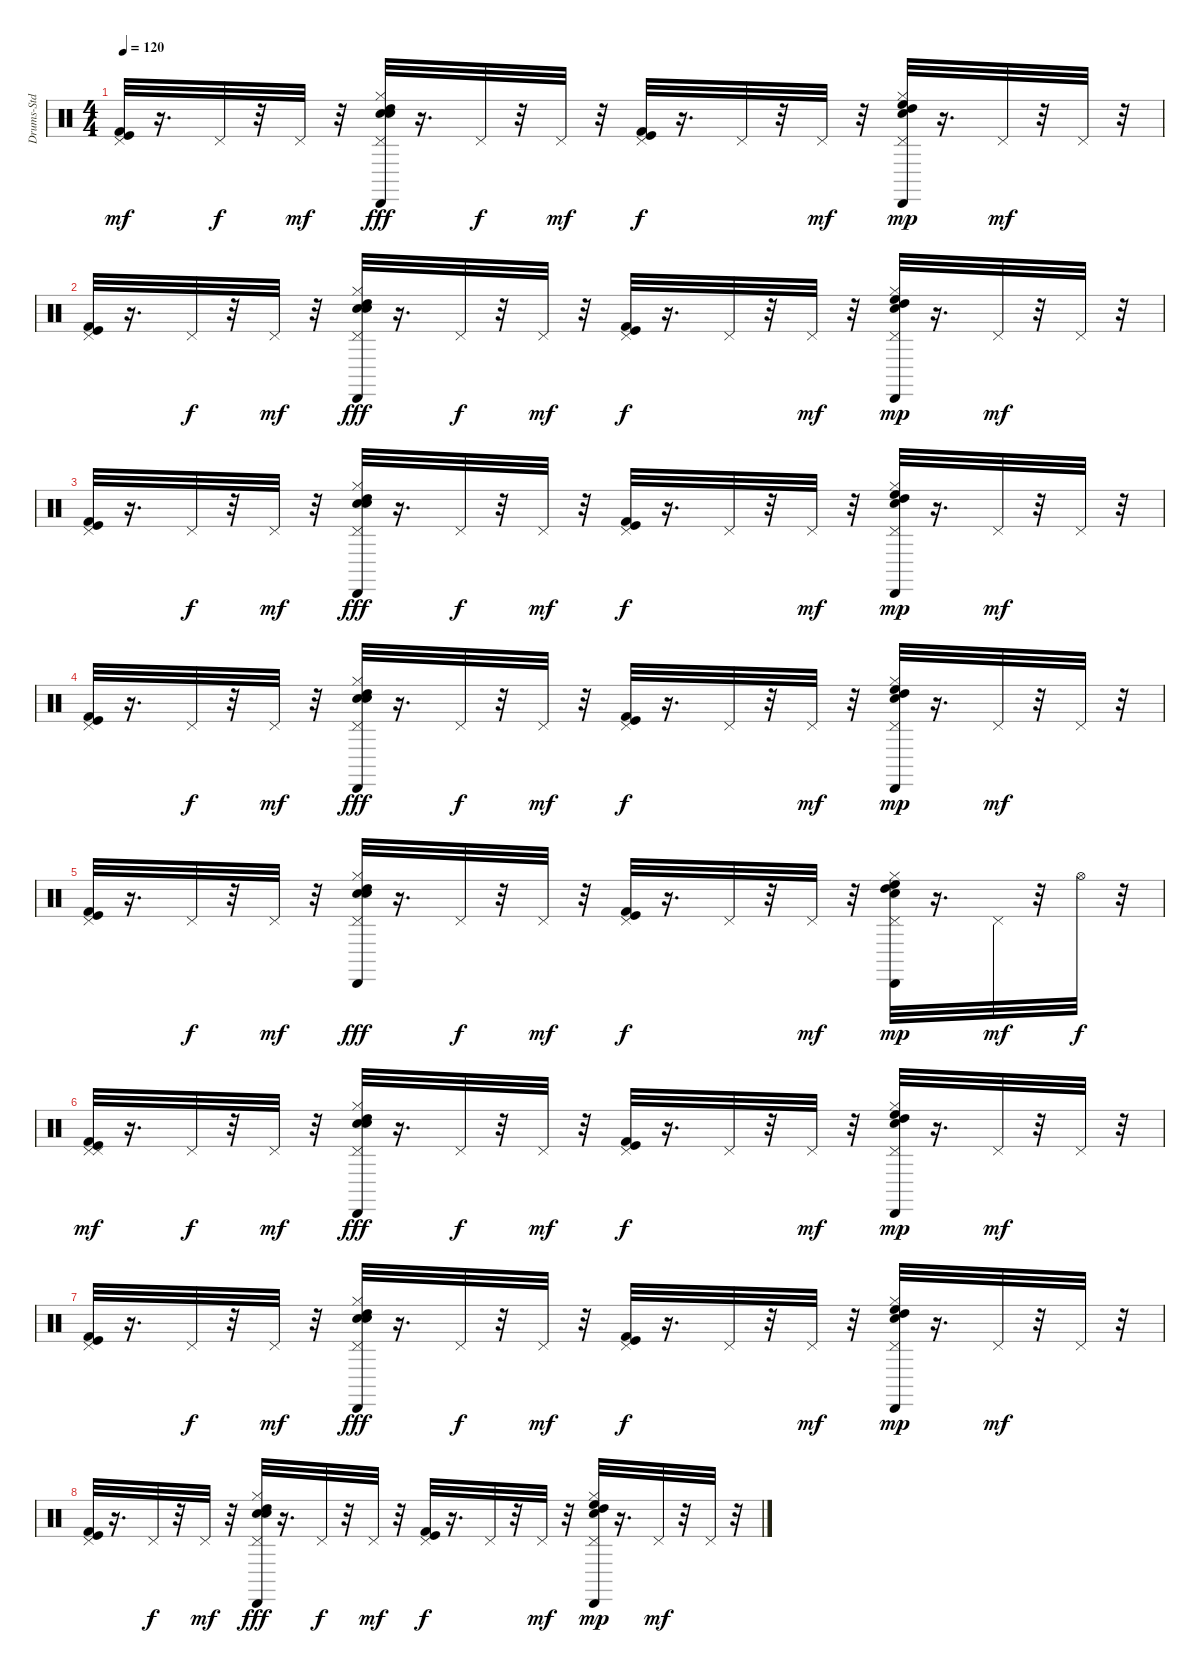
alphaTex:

\track ("Drums-Std" "Drums-Std") {instrument percussion}
\staff {score}
\articulation defaults
\ts (4 4)
\tempo 120
\clef neutral
\ks c
("Pedal Hi-Hat (hit)" "Kick (hit) 2" "Kick (hit)").32{dy mf} r.16{d} "Pedal Hi-Hat (hit)".32{dy f} r.32 "Pedal Hi-Hat (hit)".32{dy mf} r.32 ("Snare (hit) 2" "High Tom (hit)" "Cabasa (hit)" "Hi-Hat (closed)" "Pedal Hi-Hat (hit)" "Electric Snare (hit)").32{dy fff} r.16{d} "Pedal Hi-Hat (hit)".32{dy f} r.32 "Pedal Hi-Hat (hit)".32{dy mf} r.32 ("Pedal Hi-Hat (hit)" "Kick (hit) 2" "Kick (hit)").32{dy f} r.16{d} "Pedal Hi-Hat (hit)".32 r.32 "Pedal Hi-Hat (hit)".32{dy mf} r.32 ("Snare (hit) 2" "High Floor Tom (hit)" "High Tom (hit)" "Cabasa (hit)" "Hi-Hat (closed)" "Pedal Hi-Hat (hit)").32{dy mp} r.16{d} "Pedal Hi-Hat (hit)".32{dy mf} r.32 "Pedal Hi-Hat (hit)".32 r.32 |
("Pedal Hi-Hat (hit)" "Kick (hit) 2" "Kick (hit)").32 r.16{d} "Pedal Hi-Hat (hit)".32{dy f} r.32 "Pedal Hi-Hat (hit)".32{dy mf} r.32 ("Snare (hit) 2" "High Tom (hit)" "Cabasa (hit)" "Hi-Hat (closed)" "Pedal Hi-Hat (hit)" "Electric Snare (hit)").32{dy fff} r.16{d} "Pedal Hi-Hat (hit)".32{dy f} r.32 "Pedal Hi-Hat (hit)".32{dy mf} r.32 ("Pedal Hi-Hat (hit)" "Kick (hit) 2" "Kick (hit)").32{dy f} r.16{d} "Pedal Hi-Hat (hit)".32 r.32 "Pedal Hi-Hat (hit)".32{dy mf} r.32 ("Snare (hit) 2" "High Floor Tom (hit)" "High Tom (hit)" "Cabasa (hit)" "Hi-Hat (closed)" "Pedal Hi-Hat (hit)").32{dy mp} r.16{d} "Pedal Hi-Hat (hit)".32{dy mf} r.32 "Pedal Hi-Hat (hit)".32 r.32 |
("Pedal Hi-Hat (hit)" "Kick (hit) 2" "Kick (hit)").32 r.16{d} "Pedal Hi-Hat (hit)".32{dy f} r.32 "Pedal Hi-Hat (hit)".32{dy mf} r.32 ("Snare (hit) 2" "High Tom (hit)" "Cabasa (hit)" "Hi-Hat (closed)" "Pedal Hi-Hat (hit)" "Electric Snare (hit)").32{dy fff} r.16{d} "Pedal Hi-Hat (hit)".32{dy f} r.32 "Pedal Hi-Hat (hit)".32{dy mf} r.32 ("Pedal Hi-Hat (hit)" "Kick (hit) 2" "Kick (hit)").32{dy f} r.16{d} "Pedal Hi-Hat (hit)".32 r.32 "Pedal Hi-Hat (hit)".32{dy mf} r.32 ("Snare (hit) 2" "High Floor Tom (hit)" "High Tom (hit)" "Cabasa (hit)" "Hi-Hat (closed)" "Pedal Hi-Hat (hit)").32{dy mp} r.16{d} "Pedal Hi-Hat (hit)".32{dy mf} r.32 "Pedal Hi-Hat (hit)".32 r.32 |
("Pedal Hi-Hat (hit)" "Kick (hit) 2" "Kick (hit)").32 r.16{d} "Pedal Hi-Hat (hit)".32{dy f} r.32 "Pedal Hi-Hat (hit)".32{dy mf} r.32 ("Snare (hit) 2" "High Tom (hit)" "Cabasa (hit)" "Hi-Hat (closed)" "Pedal Hi-Hat (hit)" "Electric Snare (hit)").32{dy fff} r.16{d} "Pedal Hi-Hat (hit)".32{dy f} r.32 "Pedal Hi-Hat (hit)".32{dy mf} r.32 ("Pedal Hi-Hat (hit)" "Kick (hit) 2" "Kick (hit)").32{dy f} r.16{d} "Pedal Hi-Hat (hit)".32 r.32 "Pedal Hi-Hat (hit)".32{dy mf} r.32 ("Snare (hit) 2" "High Floor Tom (hit)" "High Tom (hit)" "Cabasa (hit)" "Hi-Hat (closed)" "Pedal Hi-Hat (hit)").32{dy mp} r.16{d} "Pedal Hi-Hat (hit)".32{dy mf} r.32 "Pedal Hi-Hat (hit)".32 r.32 |
("Pedal Hi-Hat (hit)" "Kick (hit) 2" "Kick (hit)").32 r.16{d} "Pedal Hi-Hat (hit)".32{dy f} r.32 "Pedal Hi-Hat (hit)".32{dy mf} r.32 ("Snare (hit) 2" "High Tom (hit)" "Cabasa (hit)" "Hi-Hat (closed)" "Pedal Hi-Hat (hit)" "Electric Snare (hit)").32{dy fff} r.16{d} "Pedal Hi-Hat (hit)".32{dy f} r.32 "Pedal Hi-Hat (hit)".32{dy mf} r.32 ("Pedal Hi-Hat (hit)" "Kick (hit) 2" "Kick (hit)").32{dy f} r.16{d} "Pedal Hi-Hat (hit)".32 r.32 "Pedal Hi-Hat (hit)".32{dy mf} r.32 ("Snare (hit) 2" "High Floor Tom (hit)" "High Tom (hit)" "Cabasa (hit)" "Hi-Hat (closed)" "Pedal Hi-Hat (hit)").32{dy mp} r.16{d} "Pedal Hi-Hat (hit)".32{dy mf} r.32 "Hi-Hat (open)".32{dy f} r.32 |
("Pedal Hi-Hat (hit)" "Kick (hit) 2" "Kick (hit)" "Pedal Hi-Hat (hit)").32{dy mf} r.16{d} "Pedal Hi-Hat (hit)".32{dy f} r.32 "Pedal Hi-Hat (hit)".32{dy mf} r.32 ("Snare (hit) 2" "High Tom (hit)" "Cabasa (hit)" "Hi-Hat (closed)" "Pedal Hi-Hat (hit)" "Electric Snare (hit)").32{dy fff} r.16{d} "Pedal Hi-Hat (hit)".32{dy f} r.32 "Pedal Hi-Hat (hit)".32{dy mf} r.32 ("Pedal Hi-Hat (hit)" "Kick (hit) 2" "Kick (hit)").32{dy f} r.16{d} "Pedal Hi-Hat (hit)".32 r.32 "Pedal Hi-Hat (hit)".32{dy mf} r.32 ("Snare (hit) 2" "High Floor Tom (hit)" "High Tom (hit)" "Cabasa (hit)" "Hi-Hat (closed)" "Pedal Hi-Hat (hit)").32{dy mp} r.16{d} "Pedal Hi-Hat (hit)".32{dy mf} r.32 "Pedal Hi-Hat (hit)".32 r.32 |
("Pedal Hi-Hat (hit)" "Kick (hit) 2" "Kick (hit)").32 r.16{d} "Pedal Hi-Hat (hit)".32{dy f} r.32 "Pedal Hi-Hat (hit)".32{dy mf} r.32 ("Snare (hit) 2" "High Tom (hit)" "Cabasa (hit)" "Hi-Hat (closed)" "Pedal Hi-Hat (hit)" "Electric Snare (hit)").32{dy fff} r.16{d} "Pedal Hi-Hat (hit)".32{dy f} r.32 "Pedal Hi-Hat (hit)".32{dy mf} r.32 ("Pedal Hi-Hat (hit)" "Kick (hit) 2" "Kick (hit)").32{dy f} r.16{d} "Pedal Hi-Hat (hit)".32 r.32 "Pedal Hi-Hat (hit)".32{dy mf} r.32 ("Snare (hit) 2" "High Floor Tom (hit)" "High Tom (hit)" "Cabasa (hit)" "Hi-Hat (closed)" "Pedal Hi-Hat (hit)").32{dy mp} r.16{d} "Pedal Hi-Hat (hit)".32{dy mf} r.32 "Pedal Hi-Hat (hit)".32 r.32 |
("Pedal Hi-Hat (hit)" "Kick (hit) 2" "Kick (hit)").32 r.16{d} "Pedal Hi-Hat (hit)".32{dy f} r.32 "Pedal Hi-Hat (hit)".32{dy mf} r.32 ("Snare (hit) 2" "High Tom (hit)" "Cabasa (hit)" "Hi-Hat (closed)" "Pedal Hi-Hat (hit)" "Electric Snare (hit)").32{dy fff} r.16{d} "Pedal Hi-Hat (hit)".32{dy f} r.32 "Pedal Hi-Hat (hit)".32{dy mf} r.32 ("Pedal Hi-Hat (hit)" "Kick (hit) 2" "Kick (hit)").32{dy f} r.16{d} "Pedal Hi-Hat (hit)".32 r.32 "Pedal Hi-Hat (hit)".32{dy mf} r.32 ("Snare (hit) 2" "High Floor Tom (hit)" "High Tom (hit)" "Cabasa (hit)" "Hi-Hat (closed)" "Pedal Hi-Hat (hit)").32{dy mp} r.16{d} "Pedal Hi-Hat (hit)".32{dy mf} r.32 "Pedal Hi-Hat (hit)".32 r.32
